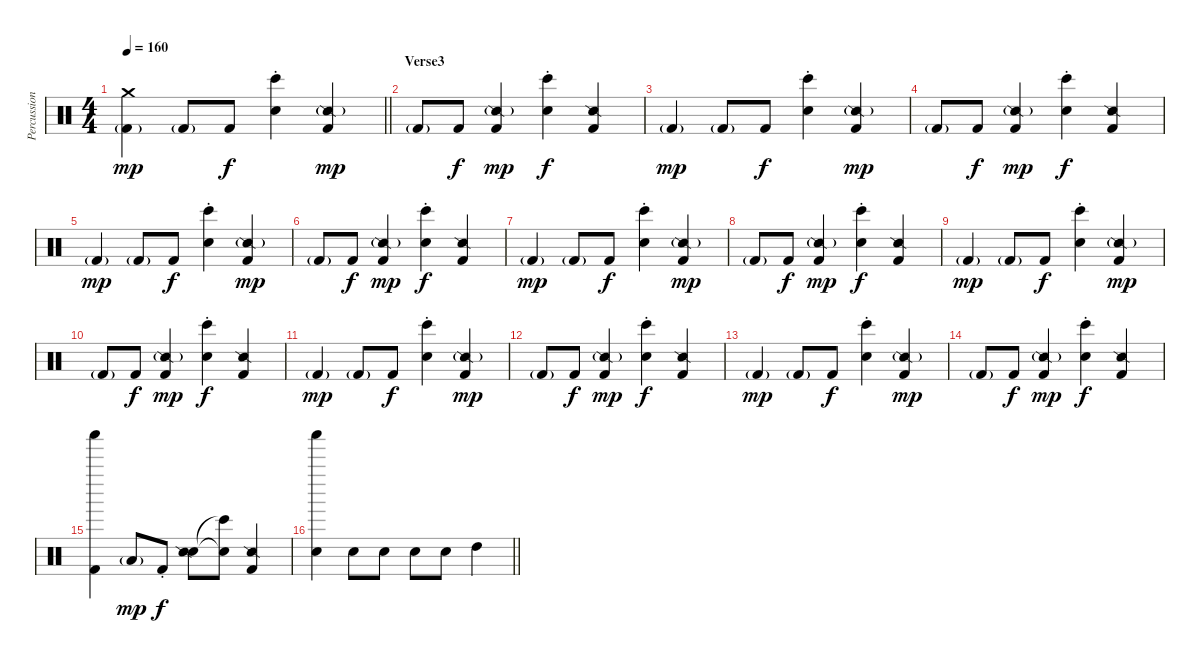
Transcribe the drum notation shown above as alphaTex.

\track ("Percussion" "Percussion") {instrument percussion}
\staff {score}
\articulation defaults
\ts (4 4)
\tempo 160
\clef neutral
\barLineRight lightlight
\ks c
("Kick (hit) 2"{g} "Crash medium (hit)").4{dy mp} "Kick (hit) 2"{g}.8 "Kick (hit) 2".8{dy f} ("Electric Snare (hit)" "Bongo High (hit)"{st}).4 ("Kick (hit) 2" "Snare (side stick) 2"{g}).4{dy mp} |
\section ("" "Verse3")
"Kick (hit) 2"{g}.8 "Kick (hit) 2".8{dy f} ("Kick (hit) 2" "Snare (side stick) 2"{g}).4{dy mp} ("Electric Snare (hit)" "Bongo High (hit)"{st}).4{dy f} ("Kick (hit) 2" "Snare (side stick) 2").4 |
"Kick (hit) 2"{g}.4{dy mp} "Kick (hit) 2"{g}.8 "Kick (hit) 2".8{dy f} ("Electric Snare (hit)" "Bongo High (hit)"{st}).4 ("Kick (hit) 2" "Snare (side stick) 2"{g}).4{dy mp} |
"Kick (hit) 2"{g}.8 "Kick (hit) 2".8{dy f} ("Kick (hit) 2" "Snare (side stick) 2"{g}).4{dy mp} ("Electric Snare (hit)" "Bongo High (hit)"{st}).4{dy f} ("Kick (hit) 2" "Snare (side stick) 2").4 |
"Kick (hit) 2"{g}.4{dy mp} "Kick (hit) 2"{g}.8 "Kick (hit) 2".8{dy f} ("Electric Snare (hit)" "Bongo High (hit)"{st}).4 ("Kick (hit) 2" "Snare (side stick) 2"{g}).4{dy mp} |
"Kick (hit) 2"{g}.8 "Kick (hit) 2".8{dy f} ("Kick (hit) 2" "Snare (side stick) 2"{g}).4{dy mp} ("Electric Snare (hit)" "Bongo High (hit)"{st}).4{dy f} ("Kick (hit) 2" "Snare (side stick) 2").4 |
"Kick (hit) 2"{g}.4{dy mp} "Kick (hit) 2"{g}.8 "Kick (hit) 2".8{dy f} ("Electric Snare (hit)" "Bongo High (hit)"{st}).4 ("Kick (hit) 2" "Snare (side stick) 2"{g}).4{dy mp} |
"Kick (hit) 2"{g}.8 "Kick (hit) 2".8{dy f} ("Kick (hit) 2" "Snare (side stick) 2"{g}).4{dy mp} ("Electric Snare (hit)" "Bongo High (hit)"{st}).4{dy f} ("Kick (hit) 2" "Snare (side stick) 2").4 |
"Kick (hit) 2"{g}.4{dy mp} "Kick (hit) 2"{g}.8 "Kick (hit) 2".8{dy f} ("Electric Snare (hit)" "Bongo High (hit)"{st}).4 ("Kick (hit) 2" "Snare (side stick) 2"{g}).4{dy mp} |
"Kick (hit) 2"{g}.8 "Kick (hit) 2".8{dy f} ("Kick (hit) 2" "Snare (side stick) 2"{g}).4{dy mp} ("Electric Snare (hit)" "Bongo High (hit)"{st}).4{dy f} ("Kick (hit) 2" "Snare (side stick) 2").4 |
"Kick (hit) 2"{g}.4{dy mp} "Kick (hit) 2"{g}.8 "Kick (hit) 2".8{dy f} ("Electric Snare (hit)" "Bongo High (hit)"{st}).4 ("Kick (hit) 2" "Snare (side stick) 2"{g}).4{dy mp} |
"Kick (hit) 2"{g}.8 "Kick (hit) 2".8{dy f} ("Kick (hit) 2" "Snare (side stick) 2"{g}).4{dy mp} ("Electric Snare (hit)" "Bongo High (hit)"{st}).4{dy f} ("Kick (hit) 2" "Snare (side stick) 2").4 |
"Kick (hit) 2"{g}.4{dy mp} "Kick (hit) 2"{g}.8 "Kick (hit) 2".8{dy f} ("Electric Snare (hit)" "Bongo High (hit)"{st}).4 ("Kick (hit) 2" "Snare (side stick) 2"{g}).4{dy mp} |
"Kick (hit) 2"{g}.8 "Kick (hit) 2".8{dy f} ("Kick (hit) 2" "Snare (side stick) 2"{g}).4{dy mp} ("Electric Snare (hit)" "Bongo High (hit)"{st}).4{dy f} ("Kick (hit) 2" "Snare (side stick) 2").4 |
("Kick (hit) 2" "Shaker (hit)").4 "Low Tom (hit)"{g}.8{dy mp} "Kick (hit) 2"{st}.8{dy f} ("Electric Snare (hit)" "Snare (side stick) 2").8 ("Electric Snare (hit)"{t} "Bongo High (hit)"{t}).8 ("Kick (hit) 2" "Snare (side stick) 2").4 |
\barLineRight lightlight
("Electric Snare (hit)" "Shaker (hit)").4 "Electric Snare (hit)".8 "Electric Snare (hit)".8 "Electric Snare (hit)".8 "Electric Snare (hit)".8 "High Tom (hit)".4
